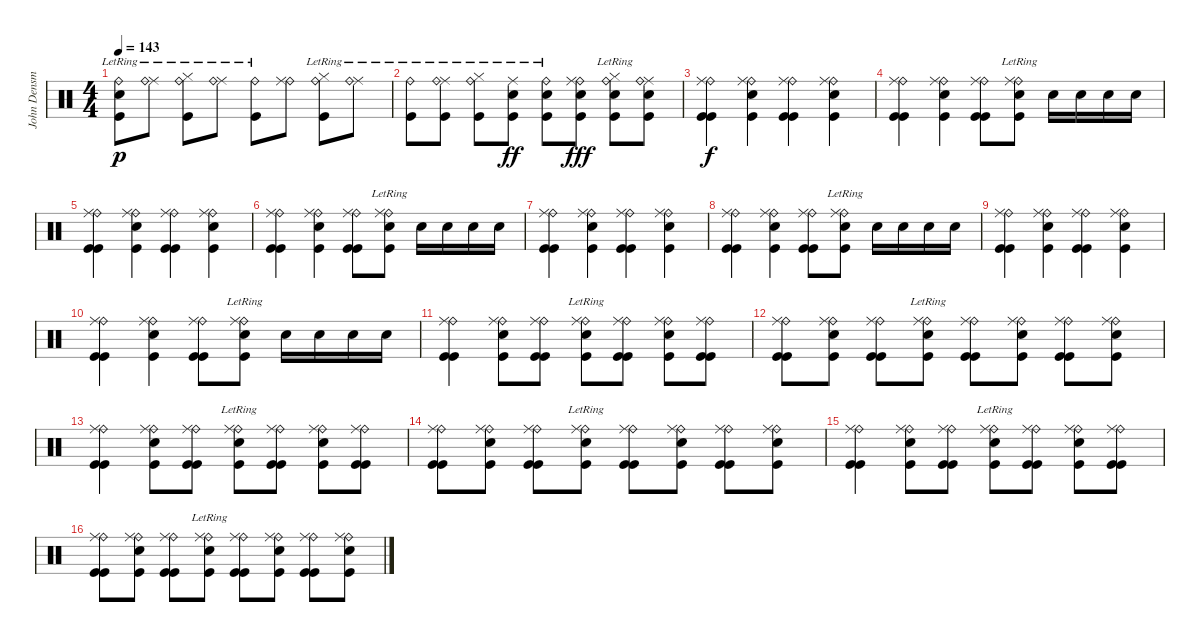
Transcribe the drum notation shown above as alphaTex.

\track ("John Densmore" "John Densm") {instrument percussion}
\staff {score}
\articulation defaults
\ts (4 4)
\tempo 143
\clef neutral
\ks c
("Electric Snare (hit)" "Ride (bell)"{lr} "Kick (hit)").8{dy p} ("Ride (middle)"{lr} "Ride (bell)"{lr}).8 ("Hi-Hat (closed)" "Ride (bell)"{lr} "Kick (hit)").8 ("Ride (middle)"{lr} "Ride (bell)"{lr}).8 ("Ride (bell)"{lr} "Kick (hit)").8 ("Ride (bell)" "Ride (middle)").8 ("Hi-Hat (closed)" "Ride (bell)"{lr} "Kick (hit)").8 ("Ride (middle)"{lr} "Ride (bell)"{lr}).8 |
("Ride (bell)"{lr} "Kick (hit)").8 ("Ride (middle)"{lr} "Ride (bell)"{lr} "Kick (hit)").8 ("Hi-Hat (closed)" "Ride (bell)"{lr} "Kick (hit)").8 ("Snare (hit) 2" "Ride (middle)"{lr} "Kick (hit)"{lr}).8{dy ff} ("Ride (bell)"{lr} "Snare (hit) 2" "Kick (hit)").8 ("Snare (hit) 2" "Ride (bell)" "Ride (middle)" "Kick (hit)").8{dy fff} ("Snare (hit) 2" "Hi-Hat (closed)" "Ride (bell)"{lr} "Kick (hit)").8 ("Ride (middle)"{lr} "Snare (hit) 2" "Ride (bell)"{lr} "Kick (hit)").8 |
("Ride (bell)" "Ride (middle)" "Kick (hit)" "Kick (hit)").4{dy f} ("Ride (bell)" "Ride (middle)" "Kick (hit)" "Snare (hit) 2").4 ("Ride (bell)" "Ride (middle)" "Kick (hit)" "Kick (hit)").4 ("Ride (bell)" "Ride (middle)" "Kick (hit)" "Snare (hit) 2").4 |
("Ride (bell)" "Ride (middle)" "Kick (hit)" "Kick (hit)").4 ("Ride (bell)" "Ride (middle)" "Kick (hit)" "Snare (hit) 2").4 ("Ride (bell)" "Ride (middle)" "Kick (hit)" "Kick (hit)").8 ("Ride (bell)"{lr} "Ride (middle)"{lr} "Kick (hit)" "Snare (hit) 2").8 "Snare (hit) 2".16 "Snare (hit) 2".16 "Snare (hit) 2".16 "Snare (hit) 2".16 |
("Ride (bell)" "Ride (middle)" "Kick (hit)" "Kick (hit)").4 ("Ride (bell)" "Ride (middle)" "Kick (hit)" "Snare (hit) 2").4 ("Ride (bell)" "Ride (middle)" "Kick (hit)" "Kick (hit)").4 ("Ride (bell)" "Ride (middle)" "Kick (hit)" "Snare (hit) 2").4 |
("Ride (bell)" "Ride (middle)" "Kick (hit)" "Kick (hit)").4 ("Ride (bell)" "Ride (middle)" "Kick (hit)" "Snare (hit) 2").4 ("Ride (bell)" "Ride (middle)" "Kick (hit)" "Kick (hit)").8 ("Ride (bell)"{lr} "Ride (middle)"{lr} "Kick (hit)" "Snare (hit) 2").8 "Snare (hit) 2".16 "Snare (hit) 2".16 "Snare (hit) 2".16 "Snare (hit) 2".16 |
("Ride (bell)" "Ride (middle)" "Kick (hit)" "Kick (hit)").4 ("Ride (bell)" "Ride (middle)" "Kick (hit)" "Snare (hit) 2").4 ("Ride (bell)" "Ride (middle)" "Kick (hit)" "Kick (hit)").4 ("Ride (bell)" "Ride (middle)" "Kick (hit)" "Snare (hit) 2").4 |
("Ride (bell)" "Ride (middle)" "Kick (hit)" "Kick (hit)").4 ("Ride (bell)" "Ride (middle)" "Kick (hit)" "Snare (hit) 2").4 ("Ride (bell)" "Ride (middle)" "Kick (hit)" "Kick (hit)").8 ("Ride (bell)"{lr} "Ride (middle)"{lr} "Kick (hit)" "Snare (hit) 2").8 "Snare (hit) 2".16 "Snare (hit) 2".16 "Snare (hit) 2".16 "Snare (hit) 2".16 |
("Ride (bell)" "Ride (middle)" "Kick (hit)" "Kick (hit)").4 ("Ride (bell)" "Ride (middle)" "Kick (hit)" "Snare (hit) 2").4 ("Ride (bell)" "Ride (middle)" "Kick (hit)" "Kick (hit)").4 ("Ride (bell)" "Ride (middle)" "Kick (hit)" "Snare (hit) 2").4 |
("Ride (bell)" "Ride (middle)" "Kick (hit)" "Kick (hit)").4 ("Ride (bell)" "Ride (middle)" "Kick (hit)" "Snare (hit) 2").4 ("Ride (bell)" "Ride (middle)" "Kick (hit)" "Kick (hit)").8 ("Ride (bell)"{lr} "Ride (middle)"{lr} "Kick (hit)" "Snare (hit) 2").8 "Snare (hit) 2".16 "Snare (hit) 2".16 "Snare (hit) 2".16 "Snare (hit) 2".16 |
("Ride (bell)" "Ride (middle)" "Kick (hit)" "Kick (hit)").4 ("Ride (bell)" "Ride (middle)" "Kick (hit)" "Snare (hit) 2").8 ("Ride (bell)" "Ride (middle)" "Kick (hit)" "Kick (hit)").8 ("Ride (bell)"{lr} "Ride (middle)"{lr} "Kick (hit)" "Snare (hit) 2").8 ("Ride (bell)" "Ride (middle)" "Kick (hit)" "Kick (hit)").8 ("Ride (bell)" "Ride (middle)" "Kick (hit)" "Snare (hit) 2").8 ("Ride (bell)" "Ride (middle)" "Kick (hit)" "Kick (hit)").8 |
("Ride (bell)" "Ride (middle)" "Kick (hit)" "Kick (hit)").8 ("Ride (bell)" "Ride (middle)" "Kick (hit)" "Snare (hit) 2").8 ("Ride (bell)" "Ride (middle)" "Kick (hit)" "Kick (hit)").8 ("Ride (bell)"{lr} "Ride (middle)"{lr} "Kick (hit)" "Snare (hit) 2").8 ("Ride (bell)" "Ride (middle)" "Kick (hit)" "Kick (hit)").8 ("Ride (bell)" "Ride (middle)" "Kick (hit)" "Snare (hit) 2").8 ("Ride (bell)" "Ride (middle)" "Kick (hit)" "Kick (hit)").8 ("Ride (bell)" "Ride (middle)" "Kick (hit)" "Snare (hit) 2").8 |
("Ride (bell)" "Ride (middle)" "Kick (hit)" "Kick (hit)").4 ("Ride (bell)" "Ride (middle)" "Kick (hit)" "Snare (hit) 2").8 ("Ride (bell)" "Ride (middle)" "Kick (hit)" "Kick (hit)").8 ("Ride (bell)"{lr} "Ride (middle)"{lr} "Kick (hit)" "Snare (hit) 2").8 ("Ride (bell)" "Ride (middle)" "Kick (hit)" "Kick (hit)").8 ("Ride (bell)" "Ride (middle)" "Kick (hit)" "Snare (hit) 2").8 ("Ride (bell)" "Ride (middle)" "Kick (hit)" "Kick (hit)").8 |
("Ride (bell)" "Ride (middle)" "Kick (hit)" "Kick (hit)").8 ("Ride (bell)" "Ride (middle)" "Kick (hit)" "Snare (hit) 2").8 ("Ride (bell)" "Ride (middle)" "Kick (hit)" "Kick (hit)").8 ("Ride (bell)"{lr} "Ride (middle)"{lr} "Kick (hit)" "Snare (hit) 2").8 ("Ride (bell)" "Ride (middle)" "Kick (hit)" "Kick (hit)").8 ("Ride (bell)" "Ride (middle)" "Kick (hit)" "Snare (hit) 2").8 ("Ride (bell)" "Ride (middle)" "Kick (hit)" "Kick (hit)").8 ("Ride (bell)" "Ride (middle)" "Kick (hit)" "Snare (hit) 2").8 |
("Ride (bell)" "Ride (middle)" "Kick (hit)" "Kick (hit)").4 ("Ride (bell)" "Ride (middle)" "Kick (hit)" "Snare (hit) 2").8 ("Ride (bell)" "Ride (middle)" "Kick (hit)" "Kick (hit)").8 ("Ride (bell)"{lr} "Ride (middle)"{lr} "Kick (hit)" "Snare (hit) 2").8 ("Ride (bell)" "Ride (middle)" "Kick (hit)" "Kick (hit)").8 ("Ride (bell)" "Ride (middle)" "Kick (hit)" "Snare (hit) 2").8 ("Ride (bell)" "Ride (middle)" "Kick (hit)" "Kick (hit)").8 |
("Ride (bell)" "Ride (middle)" "Kick (hit)" "Kick (hit)").8 ("Ride (bell)" "Ride (middle)" "Kick (hit)" "Snare (hit) 2").8 ("Ride (bell)" "Ride (middle)" "Kick (hit)" "Kick (hit)").8 ("Ride (bell)"{lr} "Ride (middle)"{lr} "Kick (hit)" "Snare (hit) 2").8 ("Ride (bell)" "Ride (middle)" "Kick (hit)" "Kick (hit)").8 ("Ride (bell)" "Ride (middle)" "Kick (hit)" "Snare (hit) 2").8 ("Ride (bell)" "Ride (middle)" "Kick (hit)" "Kick (hit)").8 ("Ride (bell)" "Ride (middle)" "Kick (hit)" "Snare (hit) 2").8
